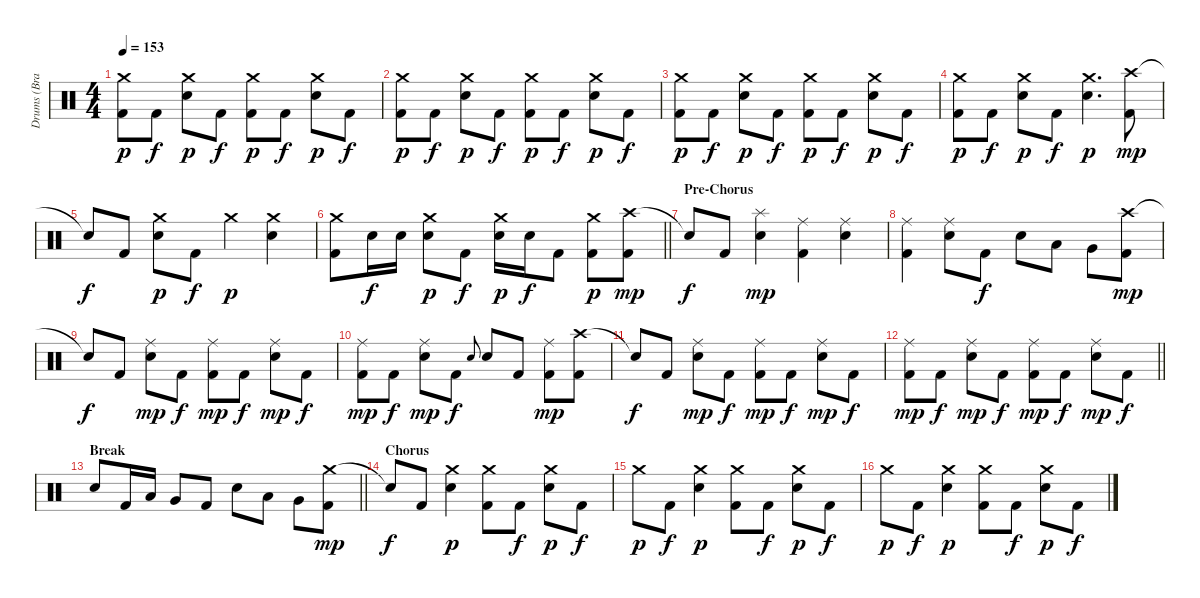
\track ("Drums (Brandon Saller)" "Drums (Bra") {instrument percussion}
\staff {score}
\articulation defaults
\ts (4 4)
\tempo 153
\clef neutral
\ks c
("Crash medium (hit)" "Kick (hit) 2").8{dy p} "Kick (hit) 2".8{dy f} ("Crash medium (hit)" "Electric Snare (hit)").8{dy p} "Kick (hit) 2".8{dy f} ("Crash medium (hit)" "Kick (hit) 2").8{dy p} "Kick (hit) 2".8{dy f} ("Crash medium (hit)" "Electric Snare (hit)").8{dy p} "Kick (hit) 2".8{dy f} |
("Crash medium (hit)" "Kick (hit) 2").8{dy p} "Kick (hit) 2".8{dy f} ("Crash medium (hit)" "Electric Snare (hit)").8{dy p} "Kick (hit) 2".8{dy f} ("Crash medium (hit)" "Kick (hit) 2").8{dy p} "Kick (hit) 2".8{dy f} ("Crash medium (hit)" "Electric Snare (hit)").8{dy p} "Kick (hit) 2".8{dy f} |
("Crash medium (hit)" "Kick (hit) 2").8{dy p} "Kick (hit) 2".8{dy f} ("Crash medium (hit)" "Electric Snare (hit)").8{dy p} "Kick (hit) 2".8{dy f} ("Crash medium (hit)" "Kick (hit) 2").8{dy p} "Kick (hit) 2".8{dy f} ("Crash medium (hit)" "Electric Snare (hit)").8{dy p} "Kick (hit) 2".8{dy f} |
("Crash medium (hit)" "Kick (hit) 2").8{dy p} "Kick (hit) 2".8{dy f} ("Crash medium (hit)" "Electric Snare (hit)").8{dy p} "Kick (hit) 2".8{dy f} ("Crash medium (hit)" "Electric Snare (hit)").4{d dy p} ("Crash high (hit)" "Kick (hit) 2").8{dy mp} |
"Snare (hit)"{t}.8{dy f} "Kick (hit) 2".8 ("Crash medium (hit)" "Electric Snare (hit)").8{dy p} "Kick (hit) 2".8{dy f} "Crash medium (hit)".4{dy p} ("Crash medium (hit)" "Electric Snare (hit)").4 |
\barLineRight lightlight
("Crash medium (hit)" "Kick (hit) 2").8 "Electric Snare (hit)".16{dy f} "Electric Snare (hit)".16 ("Crash medium (hit)" "Electric Snare (hit)").8{dy p} "Kick (hit) 2".8{dy f} ("Crash medium (hit)" "Electric Snare (hit)").16{dy p} "Electric Snare (hit)".16{dy f} "Kick (hit) 2".8 ("Crash medium (hit)" "Kick (hit) 2").8{dy p} ("Crash high (hit)" "Kick (hit) 2").8{dy mp} |
\section ("" "Pre-Chorus")
"Snare (hit)"{t}.8{dy f} "Kick (hit) 2".8 ("Splash (hit)" "Electric Snare (hit)").4{dy mp} ("Ride (middle)" "Kick (hit) 2").4 ("Ride (middle)" "Electric Snare (hit)").4 |
("Ride (middle)" "Kick (hit) 2").4 ("Ride (middle)" "Electric Snare (hit)").8 "Kick (hit) 2".8{dy f} "Electric Snare (hit)".8 "Low Tom (hit)".8 "Very Low Tom (hit)".8 ("Crash high (hit)" "Kick (hit) 2").8{dy mp} |
"Snare (hit)"{t}.8{dy f} "Kick (hit) 2".8 ("Ride (middle)" "Electric Snare (hit)").8{dy mp} "Kick (hit) 2".8{dy f} ("Ride (middle)" "Kick (hit) 2").8{dy mp} "Kick (hit) 2".8{dy f} ("Ride (middle)" "Electric Snare (hit)").8{dy mp} "Kick (hit) 2".8{dy f} |
("Ride (middle)" "Kick (hit) 2").8{dy mp} "Kick (hit) 2".8{dy f} ("Ride (middle)" "Electric Snare (hit)").8{dy mp} "Kick (hit) 2".8{dy f} "Electric Snare (hit)".8{gr onbeat} "Electric Snare (hit)".8 "Kick (hit) 2".8 ("Ride (middle)" "Kick (hit) 2").8{dy mp} ("Crash high (hit)" "Kick (hit) 2").8 |
"Snare (hit)"{t}.8{dy f} "Kick (hit) 2".8 ("Ride (middle)" "Electric Snare (hit)").8{dy mp} "Kick (hit) 2".8{dy f} ("Ride (middle)" "Kick (hit) 2").8{dy mp} "Kick (hit) 2".8{dy f} ("Ride (middle)" "Electric Snare (hit)").8{dy mp} "Kick (hit) 2".8{dy f} |
\barLineRight lightlight
("Ride (middle)" "Kick (hit) 2").8{dy mp} "Kick (hit) 2".8{dy f} ("Ride (middle)" "Electric Snare (hit)").8{dy mp} "Kick (hit) 2".8{dy f} ("Ride (middle)" "Kick (hit) 2").8{dy mp} "Kick (hit) 2".8{dy f} ("Ride (middle)" "Electric Snare (hit)").8{dy mp} "Kick (hit) 2".8{dy f} |
\section ("" "Break")
\barLineRight lightlight "Electric Snare (hit)".8 "Kick (hit) 2".16 "Low Tom (hit)".16 "Very Low Tom (hit)".8 "Kick (hit) 2".8 "Electric Snare (hit)".8 "Low Tom (hit)".8 "Very Low Tom (hit)".8
("Crash medium (hit)" "Kick (hit) 2").8{dy mp} |
\section ("" "Chorus")
"Snare (hit)"{t}.8{dy f} "Kick (hit) 2".8 ("Crash medium (hit)" "Electric Snare (hit)").4{dy p} ("Crash medium (hit)" "Kick (hit) 2").8 "Kick (hit) 2".8{dy f} ("Crash medium (hit)" "Electric Snare (hit)").8{dy p} "Kick (hit) 2".8{dy f} |
"Crash medium (hit)".8{dy p} "Kick (hit) 2".8{dy f} ("Crash medium (hit)" "Electric Snare (hit)").4{dy p} ("Crash medium (hit)" "Kick (hit) 2").8 "Kick (hit) 2".8{dy f} ("Crash medium (hit)" "Electric Snare (hit)").8{dy p} "Kick (hit) 2".8{dy f} |
"Crash medium (hit)".8{dy p} "Kick (hit) 2".8{dy f} ("Crash medium (hit)" "Electric Snare (hit)").4{dy p} ("Crash medium (hit)" "Kick (hit) 2").8 "Kick (hit) 2".8{dy f} ("Crash medium (hit)" "Electric Snare (hit)").8{dy p} "Kick (hit) 2".8{dy f}
